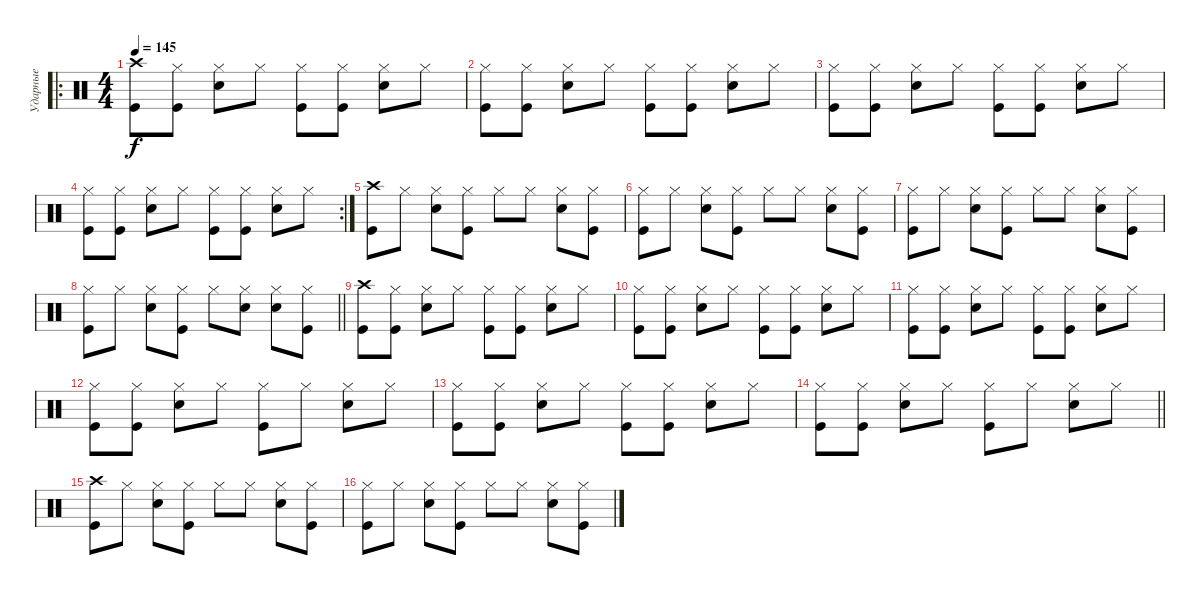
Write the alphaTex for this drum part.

\track ("Ударные" "Ударные") {instrument percussion}
\staff {score}
\articulation defaults
\ro
\ts (4 4)
\tempo 145
\clef neutral
\ks c
("Crash high (hit)" "Kick (hit)").8{dy f} ("Hi-Hat (closed)" "Kick (hit)").8 ("Hi-Hat (closed)" "Snare (hit) 2").8 "Hi-Hat (closed)".8 ("Hi-Hat (closed)" "Kick (hit)").8 ("Hi-Hat (closed)" "Kick (hit)").8 ("Hi-Hat (closed)" "Snare (hit) 2").8 "Hi-Hat (closed)".8 |
("Hi-Hat (closed)" "Kick (hit)").8 ("Hi-Hat (closed)" "Kick (hit)").8 ("Hi-Hat (closed)" "Snare (hit) 2").8 "Hi-Hat (closed)".8 ("Hi-Hat (closed)" "Kick (hit)").8 ("Hi-Hat (closed)" "Kick (hit)").8 ("Hi-Hat (closed)" "Snare (hit) 2").8 "Hi-Hat (closed)".8 |
("Hi-Hat (closed)" "Kick (hit)").8 ("Hi-Hat (closed)" "Kick (hit)").8 ("Hi-Hat (closed)" "Snare (hit) 2").8 "Hi-Hat (closed)".8 ("Hi-Hat (closed)" "Kick (hit)").8 ("Hi-Hat (closed)" "Kick (hit)").8 ("Hi-Hat (closed)" "Snare (hit) 2").8 "Hi-Hat (closed)".8 |
\rc 2
("Hi-Hat (closed)" "Kick (hit)").8 ("Hi-Hat (closed)" "Kick (hit)").8 ("Hi-Hat (closed)" "Snare (hit) 2").8 "Hi-Hat (closed)".8 ("Hi-Hat (closed)" "Kick (hit)").8 ("Hi-Hat (closed)" "Kick (hit)").8 ("Hi-Hat (closed)" "Snare (hit) 2").8 "Hi-Hat (closed)".8 |
("Crash high (hit)" "Kick (hit)").8 "Hi-Hat (closed)".8 ("Hi-Hat (closed)" "Snare (hit) 2").8 ("Hi-Hat (closed)" "Kick (hit)").8 "Hi-Hat (closed)".8 "Hi-Hat (closed)".8 ("Hi-Hat (closed)" "Snare (hit) 2").8 ("Hi-Hat (closed)" "Kick (hit)").8 |
("Hi-Hat (closed)" "Kick (hit)").8 "Hi-Hat (closed)".8 ("Hi-Hat (closed)" "Snare (hit) 2").8 ("Hi-Hat (closed)" "Kick (hit)").8 "Hi-Hat (closed)".8 "Hi-Hat (closed)".8 ("Hi-Hat (closed)" "Snare (hit) 2").8 ("Hi-Hat (closed)" "Kick (hit)").8 |
("Hi-Hat (closed)" "Kick (hit)").8 "Hi-Hat (closed)".8 ("Hi-Hat (closed)" "Snare (hit) 2").8 ("Hi-Hat (closed)" "Kick (hit)").8 "Hi-Hat (closed)".8 "Hi-Hat (closed)".8 ("Hi-Hat (closed)" "Snare (hit) 2").8 ("Hi-Hat (closed)" "Kick (hit)").8 |
\barLineRight lightlight
("Hi-Hat (closed)" "Kick (hit)").8 "Hi-Hat (closed)".8 ("Hi-Hat (closed)" "Snare (hit) 2").8 ("Hi-Hat (closed)" "Kick (hit)").8 "Hi-Hat (closed)".8 ("Hi-Hat (closed)" "Snare (hit) 2").8 ("Hi-Hat (closed)" "Snare (hit) 2").8 ("Hi-Hat (closed)" "Kick (hit)").8 |
("Crash high (hit)" "Kick (hit)").8 ("Hi-Hat (closed)" "Kick (hit)").8 ("Hi-Hat (closed)" "Snare (hit) 2").8 "Hi-Hat (closed)".8 ("Hi-Hat (closed)" "Kick (hit)").8 ("Hi-Hat (closed)" "Kick (hit)").8 ("Hi-Hat (closed)" "Snare (hit) 2").8 "Hi-Hat (closed)".8 |
("Hi-Hat (closed)" "Kick (hit)").8 ("Hi-Hat (closed)" "Kick (hit)").8 ("Hi-Hat (closed)" "Snare (hit) 2").8 "Hi-Hat (closed)".8 ("Hi-Hat (closed)" "Kick (hit)").8 ("Hi-Hat (closed)" "Kick (hit)").8 ("Hi-Hat (closed)" "Snare (hit) 2").8 "Hi-Hat (closed)".8 |
("Hi-Hat (closed)" "Kick (hit)").8 ("Hi-Hat (closed)" "Kick (hit)").8 ("Hi-Hat (closed)" "Snare (hit) 2").8 "Hi-Hat (closed)".8 ("Hi-Hat (closed)" "Kick (hit)").8 ("Hi-Hat (closed)" "Kick (hit)").8 ("Hi-Hat (closed)" "Snare (hit) 2").8 "Hi-Hat (closed)".8 |
("Hi-Hat (closed)" "Kick (hit)").8 ("Hi-Hat (closed)" "Kick (hit)").8 ("Hi-Hat (closed)" "Snare (hit) 2").8 "Hi-Hat (closed)".8 ("Hi-Hat (closed)" "Kick (hit)").8 "Hi-Hat (closed)".8 ("Hi-Hat (closed)" "Snare (hit) 2").8 "Hi-Hat (closed)".8 |
("Hi-Hat (closed)" "Kick (hit)").8 ("Hi-Hat (closed)" "Kick (hit)").8 ("Hi-Hat (closed)" "Snare (hit) 2").8 "Hi-Hat (closed)".8 ("Hi-Hat (closed)" "Kick (hit)").8 ("Hi-Hat (closed)" "Kick (hit)").8 ("Hi-Hat (closed)" "Snare (hit) 2").8 "Hi-Hat (closed)".8 |
\barLineRight lightlight
("Hi-Hat (closed)" "Kick (hit)").8 ("Hi-Hat (closed)" "Kick (hit)").8 ("Hi-Hat (closed)" "Snare (hit) 2").8 "Hi-Hat (closed)".8 ("Hi-Hat (closed)" "Kick (hit)").8 "Hi-Hat (closed)".8 ("Hi-Hat (closed)" "Snare (hit) 2").8 "Hi-Hat (closed)".8 |
("Crash high (hit)" "Kick (hit)").8 "Hi-Hat (closed)".8 ("Hi-Hat (closed)" "Snare (hit) 2").8 ("Hi-Hat (closed)" "Kick (hit)").8 "Hi-Hat (closed)".8 "Hi-Hat (closed)".8 ("Hi-Hat (closed)" "Snare (hit) 2").8 ("Hi-Hat (closed)" "Kick (hit)").8 |
("Hi-Hat (closed)" "Kick (hit)").8 "Hi-Hat (closed)".8 ("Hi-Hat (closed)" "Snare (hit) 2").8 ("Hi-Hat (closed)" "Kick (hit)").8 "Hi-Hat (closed)".8 "Hi-Hat (closed)".8 ("Hi-Hat (closed)" "Snare (hit) 2").8 ("Hi-Hat (closed)" "Kick (hit)").8
